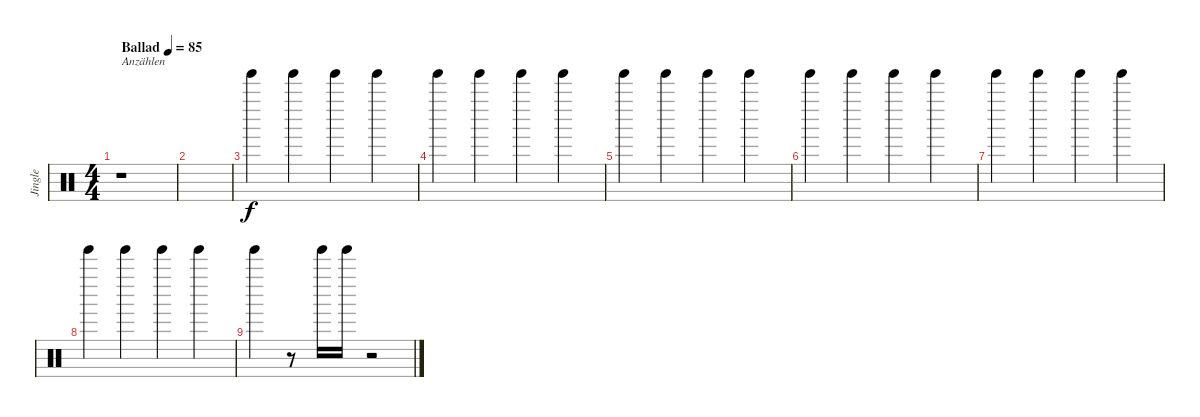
\track ("Jingle" "Jingle") {instrument percussion}
\staff {score}
\articulation defaults
\ts (4 4)
\tempo (85 "Ballad")
\clef neutral
\ks c
r.1{txt "Anzählen" dy f} |
|
"Tinkle Bell (hit)".4 "Tinkle Bell (hit)".4 "Tinkle Bell (hit)".4 "Tinkle Bell (hit)".4 |
"Tinkle Bell (hit)".4 "Tinkle Bell (hit)".4 "Tinkle Bell (hit)".4 "Tinkle Bell (hit)".4 |
"Tinkle Bell (hit)".4 "Tinkle Bell (hit)".4 "Tinkle Bell (hit)".4 "Tinkle Bell (hit)".4 |
"Tinkle Bell (hit)".4 "Tinkle Bell (hit)".4 "Tinkle Bell (hit)".4 "Tinkle Bell (hit)".4 |
"Tinkle Bell (hit)".4 "Tinkle Bell (hit)".4 "Tinkle Bell (hit)".4 "Tinkle Bell (hit)".4 |
"Tinkle Bell (hit)".4 "Tinkle Bell (hit)".4 "Tinkle Bell (hit)".4 "Tinkle Bell (hit)".4 |
"Tinkle Bell (hit)".4 r.8 "Tinkle Bell (hit)".16 "Tinkle Bell (hit)".16 r.2
